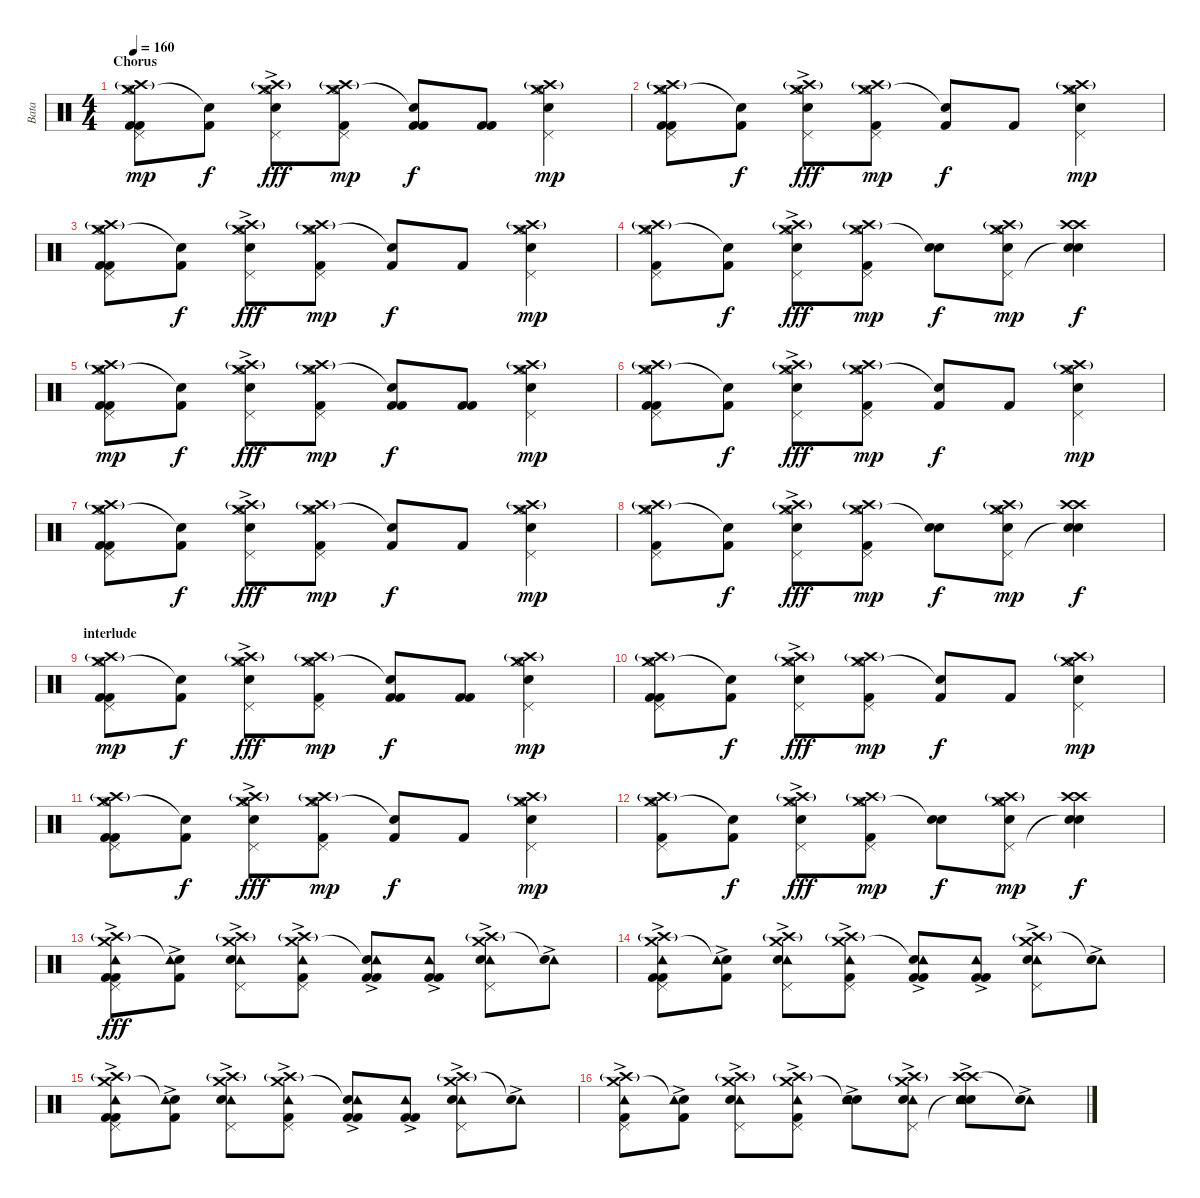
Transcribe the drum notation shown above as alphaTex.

\track ("Bata" "Bata") {instrument percussion}
\staff {score}
\articulation defaults
\ts (4 4)
\section ("" "Chorus")
\tempo 160
\clef neutral
\ks c
("Crash medium (hit)" "Crash high (hit)"{g} "Pedal Hi-Hat (hit)" "Hi-Hat (open)" "Kick (hit) 2" "Kick (hit) 2").8{dy mp} ("Snare (hit)"{t} "Kick (hit) 2").8{dy f} ("Crash medium (hit)"{ac} "Crash high (hit)"{g} "Pedal Hi-Hat (hit)"{ac} "Hi-Hat (open)" "Snare (hit) 2").8{dy fff} ("Crash medium (hit)" "Crash high (hit)"{g} "Pedal Hi-Hat (hit)" "Hi-Hat (open)" "Kick (hit) 2").8{dy mp} ("Snare (hit)"{t} "Kick (hit) 2" "Kick (hit) 2").8{dy f} ("Kick (hit) 2" "Kick (hit) 2").8 ("Crash medium (hit)" "Crash high (hit)"{g} "Pedal Hi-Hat (hit)" "Hi-Hat (open)" "Snare (hit) 2").4{dy mp} |
("Crash medium (hit)" "Crash high (hit)"{g} "Pedal Hi-Hat (hit)" "Hi-Hat (open)" "Kick (hit) 2" "Kick (hit) 2").8 ("Snare (hit)"{t} "Kick (hit) 2").8{dy f} ("Crash medium (hit)"{ac} "Crash high (hit)"{g} "Pedal Hi-Hat (hit)"{ac} "Hi-Hat (open)" "Snare (hit) 2").8{dy fff} ("Crash medium (hit)" "Crash high (hit)"{g} "Pedal Hi-Hat (hit)" "Hi-Hat (open)" "Kick (hit) 2").8{dy mp} ("Snare (hit)"{t} "Kick (hit) 2").8{dy f} "Kick (hit) 2".8 ("Crash medium (hit)" "Crash high (hit)"{g} "Pedal Hi-Hat (hit)" "Hi-Hat (open)" "Snare (hit) 2").4{dy mp} |
("Crash medium (hit)" "Crash high (hit)"{g} "Pedal Hi-Hat (hit)" "Hi-Hat (open)" "Kick (hit) 2" "Kick (hit) 2").8 ("Snare (hit)"{t} "Kick (hit) 2").8{dy f} ("Crash medium (hit)"{ac} "Crash high (hit)"{g} "Pedal Hi-Hat (hit)"{ac} "Hi-Hat (open)" "Snare (hit) 2").8{dy fff} ("Crash medium (hit)" "Crash high (hit)"{g} "Pedal Hi-Hat (hit)" "Hi-Hat (open)" "Kick (hit) 2").8{dy mp} ("Snare (hit)"{t} "Kick (hit) 2").8{dy f} "Kick (hit) 2".8 ("Crash medium (hit)" "Crash high (hit)"{g} "Pedal Hi-Hat (hit)" "Hi-Hat (open)" "Snare (hit) 2").4{dy mp} |
("Crash medium (hit)" "Crash high (hit)"{g} "Pedal Hi-Hat (hit)" "Hi-Hat (open)" "Kick (hit) 2").8 ("Snare (hit)"{t} "Kick (hit) 2").8{dy f} ("Crash medium (hit)"{ac} "Crash high (hit)"{g} "Pedal Hi-Hat (hit)"{ac} "Hi-Hat (open)" "Snare (hit) 2").8{dy fff} ("Crash medium (hit)" "Crash high (hit)"{g} "Pedal Hi-Hat (hit)" "Hi-Hat (open)" "Kick (hit) 2").8{dy mp} ("Snare (hit)"{t} "Snare (hit) 2").8{dy f} ("Crash medium (hit)" "Crash high (hit)"{g} "Pedal Hi-Hat (hit)" "Hi-Hat (open)" "Snare (hit) 2").8{dy mp} ("Crash high (hit)" "Crash high (hit)" "Snare (hit)"{t} "Snare (hit) 2").4{dy f} |
("Crash medium (hit)" "Crash high (hit)"{g} "Pedal Hi-Hat (hit)" "Hi-Hat (open)" "Kick (hit) 2" "Kick (hit) 2").8{dy mp} ("Snare (hit)"{t} "Kick (hit) 2").8{dy f} ("Crash medium (hit)"{ac} "Crash high (hit)"{g} "Pedal Hi-Hat (hit)"{ac} "Hi-Hat (open)" "Snare (hit) 2").8{dy fff} ("Crash medium (hit)" "Crash high (hit)"{g} "Pedal Hi-Hat (hit)" "Hi-Hat (open)" "Kick (hit) 2").8{dy mp} ("Snare (hit)"{t} "Kick (hit) 2" "Kick (hit) 2").8{dy f} ("Kick (hit) 2" "Kick (hit) 2").8 ("Crash medium (hit)" "Crash high (hit)"{g} "Pedal Hi-Hat (hit)" "Hi-Hat (open)" "Snare (hit) 2").4{dy mp} |
("Crash medium (hit)" "Crash high (hit)"{g} "Pedal Hi-Hat (hit)" "Hi-Hat (open)" "Kick (hit) 2" "Kick (hit) 2").8 ("Snare (hit)"{t} "Kick (hit) 2").8{dy f} ("Crash medium (hit)"{ac} "Crash high (hit)"{g} "Pedal Hi-Hat (hit)"{ac} "Hi-Hat (open)" "Snare (hit) 2").8{dy fff} ("Crash medium (hit)" "Crash high (hit)"{g} "Pedal Hi-Hat (hit)" "Hi-Hat (open)" "Kick (hit) 2").8{dy mp} ("Snare (hit)"{t} "Kick (hit) 2").8{dy f} "Kick (hit) 2".8 ("Crash medium (hit)" "Crash high (hit)"{g} "Pedal Hi-Hat (hit)" "Hi-Hat (open)" "Snare (hit) 2").4{dy mp} |
("Crash medium (hit)" "Crash high (hit)"{g} "Pedal Hi-Hat (hit)" "Hi-Hat (open)" "Kick (hit) 2" "Kick (hit) 2").8 ("Snare (hit)"{t} "Kick (hit) 2").8{dy f} ("Crash medium (hit)"{ac} "Crash high (hit)"{g} "Pedal Hi-Hat (hit)"{ac} "Hi-Hat (open)" "Snare (hit) 2").8{dy fff} ("Crash medium (hit)" "Crash high (hit)"{g} "Pedal Hi-Hat (hit)" "Hi-Hat (open)" "Kick (hit) 2").8{dy mp} ("Snare (hit)"{t} "Kick (hit) 2").8{dy f} "Kick (hit) 2".8 ("Crash medium (hit)" "Crash high (hit)"{g} "Pedal Hi-Hat (hit)" "Hi-Hat (open)" "Snare (hit) 2").4{dy mp} |
("Crash medium (hit)" "Crash high (hit)"{g} "Pedal Hi-Hat (hit)" "Hi-Hat (open)" "Kick (hit) 2").8 ("Snare (hit)"{t} "Kick (hit) 2").8{dy f} ("Crash medium (hit)"{ac} "Crash high (hit)"{g} "Pedal Hi-Hat (hit)"{ac} "Hi-Hat (open)" "Snare (hit) 2").8{dy fff} ("Crash medium (hit)" "Crash high (hit)"{g} "Pedal Hi-Hat (hit)" "Hi-Hat (open)" "Kick (hit) 2").8{dy mp} ("Snare (hit)"{t} "Snare (hit) 2").8{dy f} ("Crash medium (hit)" "Crash high (hit)"{g} "Pedal Hi-Hat (hit)" "Hi-Hat (open)" "Snare (hit) 2").8{dy mp} ("Crash high (hit)" "Crash high (hit)" "Snare (hit)"{t} "Snare (hit) 2").4{dy f} |
\section ("" "interlude")
("Crash medium (hit)" "Crash high (hit)"{g} "Pedal Hi-Hat (hit)" "Hi-Hat (open)" "Kick (hit) 2" "Kick (hit) 2").8{dy mp} ("Snare (hit)"{t} "Kick (hit) 2").8{dy f} ("Crash medium (hit)"{ac} "Crash high (hit)"{g} "Pedal Hi-Hat (hit)"{ac} "Hi-Hat (open)" "Snare (hit) 2").8{dy fff} ("Crash medium (hit)" "Crash high (hit)"{g} "Pedal Hi-Hat (hit)" "Hi-Hat (open)" "Kick (hit) 2").8{dy mp} ("Snare (hit)"{t} "Kick (hit) 2" "Kick (hit) 2").8{dy f} ("Kick (hit) 2" "Kick (hit) 2").8 ("Crash medium (hit)" "Crash high (hit)"{g} "Pedal Hi-Hat (hit)" "Hi-Hat (open)" "Snare (hit) 2").4{dy mp} |
("Crash medium (hit)" "Crash high (hit)"{g} "Pedal Hi-Hat (hit)" "Hi-Hat (open)" "Kick (hit) 2" "Kick (hit) 2").8 ("Snare (hit)"{t} "Kick (hit) 2").8{dy f} ("Crash medium (hit)"{ac} "Crash high (hit)"{g} "Pedal Hi-Hat (hit)"{ac} "Hi-Hat (open)" "Snare (hit) 2").8{dy fff} ("Crash medium (hit)" "Crash high (hit)"{g} "Pedal Hi-Hat (hit)" "Hi-Hat (open)" "Kick (hit) 2").8{dy mp} ("Snare (hit)"{t} "Kick (hit) 2").8{dy f} "Kick (hit) 2".8 ("Crash medium (hit)" "Crash high (hit)"{g} "Pedal Hi-Hat (hit)" "Hi-Hat (open)" "Snare (hit) 2").4{dy mp} |
("Crash medium (hit)" "Crash high (hit)"{g} "Pedal Hi-Hat (hit)" "Hi-Hat (open)" "Kick (hit) 2" "Kick (hit) 2").8 ("Snare (hit)"{t} "Kick (hit) 2").8{dy f} ("Crash medium (hit)"{ac} "Crash high (hit)"{g} "Pedal Hi-Hat (hit)"{ac} "Hi-Hat (open)" "Snare (hit) 2").8{dy fff} ("Crash medium (hit)" "Crash high (hit)"{g} "Pedal Hi-Hat (hit)" "Hi-Hat (open)" "Kick (hit) 2").8{dy mp} ("Snare (hit)"{t} "Kick (hit) 2").8{dy f} "Kick (hit) 2".8 ("Crash medium (hit)" "Crash high (hit)"{g} "Pedal Hi-Hat (hit)" "Hi-Hat (open)" "Snare (hit) 2").4{dy mp} |
("Crash medium (hit)" "Crash high (hit)"{g} "Pedal Hi-Hat (hit)" "Hi-Hat (open)" "Kick (hit) 2").8 ("Snare (hit)"{t} "Kick (hit) 2").8{dy f} ("Crash medium (hit)"{ac} "Crash high (hit)"{g} "Pedal Hi-Hat (hit)"{ac} "Hi-Hat (open)" "Snare (hit) 2").8{dy fff} ("Crash medium (hit)" "Crash high (hit)"{g} "Pedal Hi-Hat (hit)" "Hi-Hat (open)" "Kick (hit) 2").8{dy mp} ("Snare (hit)"{t} "Snare (hit) 2").8{dy f} ("Crash medium (hit)" "Crash high (hit)"{g} "Pedal Hi-Hat (hit)" "Hi-Hat (open)" "Snare (hit) 2").8{dy mp} ("Crash high (hit)" "Crash high (hit)" "Snare (hit)"{t} "Snare (hit) 2").4{dy f} |
("Crash medium (hit)" "Crash high (hit)"{g} "Pedal Hi-Hat (hit)" "Tambourine (hit)"{ac} "Kick (hit) 2" "Kick (hit) 2").8{dy fff} ("Snare (hit)"{t} "Tambourine (hit)"{ac} "Kick (hit) 2").8 ("Crash medium (hit)"{ac} "Crash high (hit)"{g} "Pedal Hi-Hat (hit)"{ac} "Tambourine (hit)"{ac} "Snare (hit) 2").8 ("Crash medium (hit)" "Crash high (hit)"{g} "Pedal Hi-Hat (hit)" "Tambourine (hit)"{ac} "Kick (hit) 2").8 ("Snare (hit)"{t} "Tambourine (hit)"{ac} "Kick (hit) 2" "Kick (hit) 2").8 ("Tambourine (hit)"{ac} "Kick (hit) 2" "Kick (hit) 2").8 ("Crash medium (hit)" "Crash high (hit)"{g} "Pedal Hi-Hat (hit)" "Tambourine (hit)"{ac} "Snare (hit) 2").8 ("Tambourine (hit)"{ac} "Snare (hit)"{t}).8 |
("Crash medium (hit)" "Crash high (hit)"{g} "Pedal Hi-Hat (hit)" "Tambourine (hit)"{ac} "Kick (hit) 2" "Kick (hit) 2").8 ("Snare (hit)"{t} "Tambourine (hit)"{ac} "Kick (hit) 2").8 ("Crash medium (hit)"{ac} "Crash high (hit)"{g} "Pedal Hi-Hat (hit)"{ac} "Tambourine (hit)"{ac} "Snare (hit) 2").8 ("Crash medium (hit)" "Crash high (hit)"{g} "Pedal Hi-Hat (hit)" "Tambourine (hit)"{ac} "Kick (hit) 2").8 ("Snare (hit)"{t} "Tambourine (hit)"{ac} "Kick (hit) 2" "Kick (hit) 2").8 ("Tambourine (hit)"{ac} "Kick (hit) 2" "Kick (hit) 2").8 ("Crash medium (hit)" "Crash high (hit)"{g} "Pedal Hi-Hat (hit)" "Tambourine (hit)"{ac} "Snare (hit) 2").8 ("Tambourine (hit)"{ac} "Snare (hit)"{t}).8 |
("Crash medium (hit)" "Crash high (hit)"{g} "Pedal Hi-Hat (hit)" "Tambourine (hit)"{ac} "Kick (hit) 2" "Kick (hit) 2").8 ("Snare (hit)"{t} "Tambourine (hit)"{ac} "Kick (hit) 2").8 ("Crash medium (hit)"{ac} "Crash high (hit)"{g} "Pedal Hi-Hat (hit)"{ac} "Tambourine (hit)"{ac} "Snare (hit) 2").8 ("Crash medium (hit)" "Crash high (hit)"{g} "Pedal Hi-Hat (hit)" "Tambourine (hit)"{ac} "Kick (hit) 2").8 ("Snare (hit)"{t} "Tambourine (hit)"{ac} "Kick (hit) 2" "Kick (hit) 2").8 ("Tambourine (hit)"{ac} "Kick (hit) 2" "Kick (hit) 2").8 ("Crash medium (hit)" "Crash high (hit)"{g} "Pedal Hi-Hat (hit)" "Tambourine (hit)"{ac} "Snare (hit) 2").8 ("Tambourine (hit)"{ac} "Snare (hit)"{t}).8 |
("Crash medium (hit)" "Crash high (hit)"{g} "Pedal Hi-Hat (hit)" "Tambourine (hit)"{ac} "Kick (hit) 2").8 ("Snare (hit)"{t} "Tambourine (hit)"{ac} "Kick (hit) 2").8 ("Crash medium (hit)"{ac} "Crash high (hit)"{g} "Pedal Hi-Hat (hit)"{ac} "Tambourine (hit)"{ac} "Snare (hit) 2").8 ("Crash medium (hit)" "Crash high (hit)"{g} "Pedal Hi-Hat (hit)" "Tambourine (hit)"{ac} "Kick (hit) 2").8 ("Snare (hit)"{t} "Tambourine (hit)"{ac} "Snare (hit) 2").8 ("Crash medium (hit)" "Crash high (hit)"{g} "Pedal Hi-Hat (hit)" "Tambourine (hit)"{ac} "Snare (hit) 2").8 ("Crash high (hit)" "Crash high (hit)" "Snare (hit)"{t} "Tambourine (hit)"{ac} "Snare (hit) 2").8 ("Tambourine (hit)"{ac} "Snare (hit)"{t}).8
